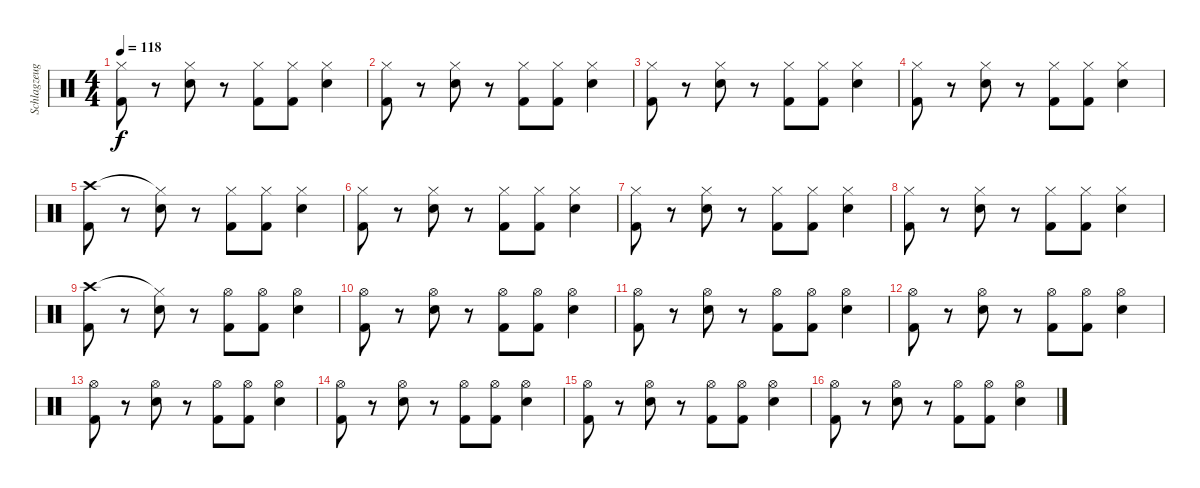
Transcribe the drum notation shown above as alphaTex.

\track ("Schlagzeug" "Schlagzeug") {instrument percussion}
\staff {score}
\articulation defaults
\ts (4 4)
\tempo 118
\clef neutral
\ks c
("Hi-Hat (closed)" "Kick (hit) 2").8{dy f} r.8 ("Hi-Hat (closed)" "Electric Snare (hit)").8 r.8 ("Hi-Hat (closed)" "Kick (hit) 2").8 ("Hi-Hat (closed)" "Kick (hit) 2").8 ("Hi-Hat (closed)" "Electric Snare (hit)").4 |
("Hi-Hat (closed)" "Kick (hit) 2").8 r.8 ("Hi-Hat (closed)" "Electric Snare (hit)").8 r.8 ("Hi-Hat (closed)" "Kick (hit) 2").8 ("Hi-Hat (closed)" "Kick (hit) 2").8 ("Hi-Hat (closed)" "Electric Snare (hit)").4 |
("Hi-Hat (closed)" "Kick (hit) 2").8 r.8 ("Hi-Hat (closed)" "Electric Snare (hit)").8 r.8 ("Hi-Hat (closed)" "Kick (hit) 2").8 ("Hi-Hat (closed)" "Kick (hit) 2").8 ("Hi-Hat (closed)" "Electric Snare (hit)").4 |
("Hi-Hat (closed)" "Kick (hit) 2").8 r.8 ("Hi-Hat (closed)" "Electric Snare (hit)").8 r.8 ("Hi-Hat (closed)" "Kick (hit) 2").8 ("Hi-Hat (closed)" "Kick (hit) 2").8 ("Hi-Hat (closed)" "Electric Snare (hit)").4 |
("Crash high (hit)" "Kick (hit) 2").8 r.8 ("Hi-Hat (closed)"{t} "Electric Snare (hit)").8 r.8 ("Hi-Hat (closed)" "Kick (hit) 2").8 ("Hi-Hat (closed)" "Kick (hit) 2").8 ("Hi-Hat (closed)" "Electric Snare (hit)").4 |
("Hi-Hat (closed)" "Kick (hit) 2").8 r.8 ("Hi-Hat (closed)" "Electric Snare (hit)").8 r.8 ("Hi-Hat (closed)" "Kick (hit) 2").8 ("Hi-Hat (closed)" "Kick (hit) 2").8 ("Hi-Hat (closed)" "Electric Snare (hit)").4 |
("Hi-Hat (closed)" "Kick (hit) 2").8 r.8 ("Hi-Hat (closed)" "Electric Snare (hit)").8 r.8 ("Hi-Hat (closed)" "Kick (hit) 2").8 ("Hi-Hat (closed)" "Kick (hit) 2").8 ("Hi-Hat (closed)" "Electric Snare (hit)").4 |
("Hi-Hat (closed)" "Kick (hit) 2").8 r.8 ("Hi-Hat (closed)" "Electric Snare (hit)").8 r.8 ("Hi-Hat (closed)" "Kick (hit) 2").8 ("Hi-Hat (closed)" "Kick (hit) 2").8 ("Hi-Hat (closed)" "Electric Snare (hit)").4 |
("Crash high (hit)" "Kick (hit) 2").8 r.8 ("Hi-Hat (closed)"{t} "Electric Snare (hit)").8 r.8 ("Hi-Hat (open)" "Kick (hit) 2").8 ("Hi-Hat (open)" "Kick (hit) 2").8 ("Hi-Hat (open)" "Electric Snare (hit)").4 |
("Hi-Hat (open)" "Kick (hit) 2").8 r.8 ("Hi-Hat (open)" "Electric Snare (hit)").8 r.8 ("Hi-Hat (open)" "Kick (hit) 2").8 ("Hi-Hat (open)" "Kick (hit) 2").8 ("Hi-Hat (open)" "Electric Snare (hit)").4 |
("Hi-Hat (open)" "Kick (hit) 2").8 r.8 ("Hi-Hat (open)" "Electric Snare (hit)").8 r.8 ("Hi-Hat (open)" "Kick (hit) 2").8 ("Hi-Hat (open)" "Kick (hit) 2").8 ("Hi-Hat (open)" "Electric Snare (hit)").4 |
("Hi-Hat (open)" "Kick (hit) 2").8 r.8 ("Hi-Hat (open)" "Electric Snare (hit)").8 r.8 ("Hi-Hat (open)" "Kick (hit) 2").8 ("Hi-Hat (open)" "Kick (hit) 2").8 ("Hi-Hat (open)" "Electric Snare (hit)").4 |
("Hi-Hat (open)" "Kick (hit) 2").8 r.8 ("Hi-Hat (open)" "Electric Snare (hit)").8 r.8 ("Hi-Hat (open)" "Kick (hit) 2").8 ("Hi-Hat (open)" "Kick (hit) 2").8 ("Hi-Hat (open)" "Electric Snare (hit)").4 |
("Hi-Hat (open)" "Kick (hit) 2").8 r.8 ("Hi-Hat (open)" "Electric Snare (hit)").8 r.8 ("Hi-Hat (open)" "Kick (hit) 2").8 ("Hi-Hat (open)" "Kick (hit) 2").8 ("Hi-Hat (open)" "Electric Snare (hit)").4 |
("Hi-Hat (open)" "Kick (hit) 2").8 r.8 ("Hi-Hat (open)" "Electric Snare (hit)").8 r.8 ("Hi-Hat (open)" "Kick (hit) 2").8 ("Hi-Hat (open)" "Kick (hit) 2").8 ("Hi-Hat (open)" "Electric Snare (hit)").4 |
("Hi-Hat (open)" "Kick (hit) 2").8 r.8 ("Hi-Hat (open)" "Electric Snare (hit)").8 r.8 ("Hi-Hat (open)" "Kick (hit) 2").8 ("Hi-Hat (open)" "Kick (hit) 2").8 ("Hi-Hat (open)" "Electric Snare (hit)").4
